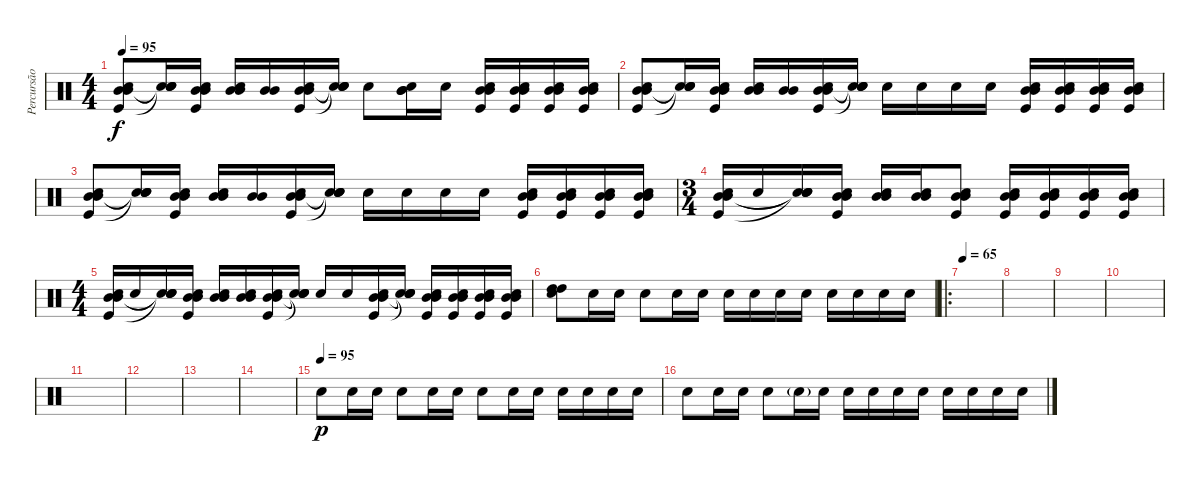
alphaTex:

\track ("Percursão" "Percursão") {instrument percussion}
\staff {score}
\articulation defaults
\ts (4 4)
\tempo 95
\clef neutral
\ks c
("Electric Snare (hit)" "Mid Tom (hit)" "Mid Tom (hit)" "Kick (hit)").8{dy f} ("Electric Snare (hit)" "Snare (hit)"{t} "Snare (hit)"{t} "Snare (hit)"{t}).16 ("Electric Snare (hit)" "Mid Tom (hit)" "Mid Tom (hit)" "Kick (hit)").16 ("Electric Snare (hit)" "Mid Tom (hit)" "Mid Tom (hit)").16 ("Mid Tom (hit)" "Mid Tom (hit)").16 ("Electric Snare (hit)" "Mid Tom (hit)" "Mid Tom (hit)" "Kick (hit)").16 ("Electric Snare (hit)" "Snare (hit)"{t} "Snare (hit)"{t} "Snare (hit)"{t}).16 "Electric Snare (hit)".8 ("Electric Snare (hit)" "Mid Tom (hit)" "Mid Tom (hit)").16 "Electric Snare (hit)".16 ("Electric Snare (hit)" "Mid Tom (hit)" "Mid Tom (hit)" "Kick (hit)").16 ("Electric Snare (hit)" "Mid Tom (hit)" "Mid Tom (hit)" "Kick (hit)").16 ("Electric Snare (hit)" "Mid Tom (hit)" "Mid Tom (hit)" "Kick (hit)").16 ("Electric Snare (hit)" "Mid Tom (hit)" "Mid Tom (hit)" "Kick (hit)").16 |
("Electric Snare (hit)" "Mid Tom (hit)" "Mid Tom (hit)" "Kick (hit)").8 ("Electric Snare (hit)" "Snare (hit)"{t} "Snare (hit)"{t} "Snare (hit)"{t}).16 ("Electric Snare (hit)" "Mid Tom (hit)" "Mid Tom (hit)" "Kick (hit)").16 ("Electric Snare (hit)" "Mid Tom (hit)" "Mid Tom (hit)").16 ("Mid Tom (hit)" "Mid Tom (hit)").16 ("Electric Snare (hit)" "Mid Tom (hit)" "Mid Tom (hit)" "Kick (hit)").16 ("Electric Snare (hit)" "Snare (hit)"{t} "Snare (hit)"{t} "Snare (hit)"{t}).16 "Electric Snare (hit)".16 "Electric Snare (hit)".16 "Electric Snare (hit)".16 "Electric Snare (hit)".16 ("Electric Snare (hit)" "Mid Tom (hit)" "Mid Tom (hit)" "Kick (hit)").16 ("Electric Snare (hit)" "Mid Tom (hit)" "Mid Tom (hit)" "Kick (hit)").16 ("Electric Snare (hit)" "Mid Tom (hit)" "Mid Tom (hit)" "Kick (hit)").16 ("Electric Snare (hit)" "Mid Tom (hit)" "Mid Tom (hit)" "Kick (hit)").16 |
("Electric Snare (hit)" "Mid Tom (hit)" "Mid Tom (hit)" "Kick (hit)").8 ("Electric Snare (hit)" "Snare (hit)"{t} "Snare (hit)"{t} "Snare (hit)"{t}).16 ("Electric Snare (hit)" "Mid Tom (hit)" "Mid Tom (hit)" "Kick (hit)").16 ("Electric Snare (hit)" "Mid Tom (hit)" "Mid Tom (hit)").16 ("Mid Tom (hit)" "Mid Tom (hit)").16 ("Electric Snare (hit)" "Mid Tom (hit)" "Mid Tom (hit)" "Kick (hit)").16 ("Electric Snare (hit)" "Snare (hit)"{t} "Snare (hit)"{t} "Snare (hit)"{t}).16 "Electric Snare (hit)".16 "Electric Snare (hit)".16 "Electric Snare (hit)".16 "Electric Snare (hit)".16 ("Electric Snare (hit)" "Mid Tom (hit)" "Mid Tom (hit)" "Kick (hit)").16 ("Electric Snare (hit)" "Mid Tom (hit)" "Mid Tom (hit)" "Kick (hit)").16 ("Electric Snare (hit)" "Mid Tom (hit)" "Mid Tom (hit)" "Kick (hit)").16 ("Electric Snare (hit)" "Mid Tom (hit)" "Mid Tom (hit)" "Kick (hit)").16 |
\ts (3 4)
("Electric Snare (hit)" "Mid Tom (hit)" "Mid Tom (hit)" "Kick (hit)").16 "Electric Snare (hit)".16 ("Electric Snare (hit)" "Snare (hit)"{t} "Snare (hit)"{t} "Snare (hit)"{t}).16 ("Electric Snare (hit)" "Mid Tom (hit)" "Mid Tom (hit)" "Kick (hit)").16 ("Electric Snare (hit)" "Mid Tom (hit)" "Mid Tom (hit)").16 ("Electric Snare (hit)" "Mid Tom (hit)" "Mid Tom (hit)").16 ("Electric Snare (hit)" "Mid Tom (hit)" "Mid Tom (hit)" "Kick (hit)").8 ("Electric Snare (hit)" "Mid Tom (hit)" "Mid Tom (hit)" "Kick (hit)").16 ("Electric Snare (hit)" "Mid Tom (hit)" "Mid Tom (hit)" "Kick (hit)").16 ("Electric Snare (hit)" "Mid Tom (hit)" "Mid Tom (hit)" "Kick (hit)").16 ("Electric Snare (hit)" "Mid Tom (hit)" "Mid Tom (hit)" "Kick (hit)").16 |
\ts (4 4)
("Electric Snare (hit)" "Mid Tom (hit)" "Mid Tom (hit)" "Kick (hit)").16 "Electric Snare (hit)".16 ("Electric Snare (hit)" "Snare (hit)"{t} "Snare (hit)"{t} "Snare (hit)"{t}).16 ("Electric Snare (hit)" "Mid Tom (hit)" "Mid Tom (hit)" "Kick (hit)").16 ("Electric Snare (hit)" "Mid Tom (hit)" "Mid Tom (hit)").16 ("Electric Snare (hit)" "Mid Tom (hit)" "Mid Tom (hit)").16 ("Electric Snare (hit)" "Mid Tom (hit)" "Mid Tom (hit)" "Kick (hit)").16 ("Electric Snare (hit)" "Snare (hit)"{t} "Snare (hit)"{t} "Snare (hit)"{t}).16 "Electric Snare (hit)".16 "Electric Snare (hit)".16 ("Electric Snare (hit)" "Mid Tom (hit)" "Mid Tom (hit)" "Kick (hit)").16 ("Electric Snare (hit)" "Snare (hit)"{t} "Snare (hit)"{t} "Snare (hit)"{t}).16 ("Electric Snare (hit)" "Mid Tom (hit)" "Mid Tom (hit)" "Kick (hit)").16 ("Electric Snare (hit)" "Mid Tom (hit)" "Mid Tom (hit)" "Kick (hit)").16 ("Electric Snare (hit)" "Mid Tom (hit)" "Mid Tom (hit)" "Kick (hit)").16 ("Electric Snare (hit)" "Mid Tom (hit)" "Mid Tom (hit)" "Kick (hit)").16 |
("Electric Snare (hit)" "High Tom (hit)" "High Tom (hit)").8 "Electric Snare (hit)".16 "Electric Snare (hit)".16 "Electric Snare (hit)".8 "Electric Snare (hit)".16 "Electric Snare (hit)".16 "Electric Snare (hit)".16 "Electric Snare (hit)".16 "Electric Snare (hit)".16 "Electric Snare (hit)".16 "Electric Snare (hit)".16 "Electric Snare (hit)".16 "Electric Snare (hit)".16 "Electric Snare (hit)".16 |
\ro
\tempo 65
|
|
|
|
|
|
|
|
\tempo (95)
"Electric Snare (hit)".8{dy p} "Electric Snare (hit)".16 "Electric Snare (hit)".16 "Electric Snare (hit)".8 "Electric Snare (hit)".16 "Electric Snare (hit)".16 "Electric Snare (hit)".8 "Electric Snare (hit)".16 "Electric Snare (hit)".16 "Electric Snare (hit)".16 "Electric Snare (hit)".16 "Electric Snare (hit)".16 "Electric Snare (hit)".16 |
"Electric Snare (hit)".8 "Electric Snare (hit)".16 "Electric Snare (hit)".16 "Electric Snare (hit)".8 "Electric Snare (hit)"{g}.16 "Electric Snare (hit)".16 "Electric Snare (hit)".16 "Electric Snare (hit)".16 "Electric Snare (hit)".16 "Electric Snare (hit)".16 "Electric Snare (hit)".16 "Electric Snare (hit)".16 "Electric Snare (hit)".16 "Electric Snare (hit)".16
